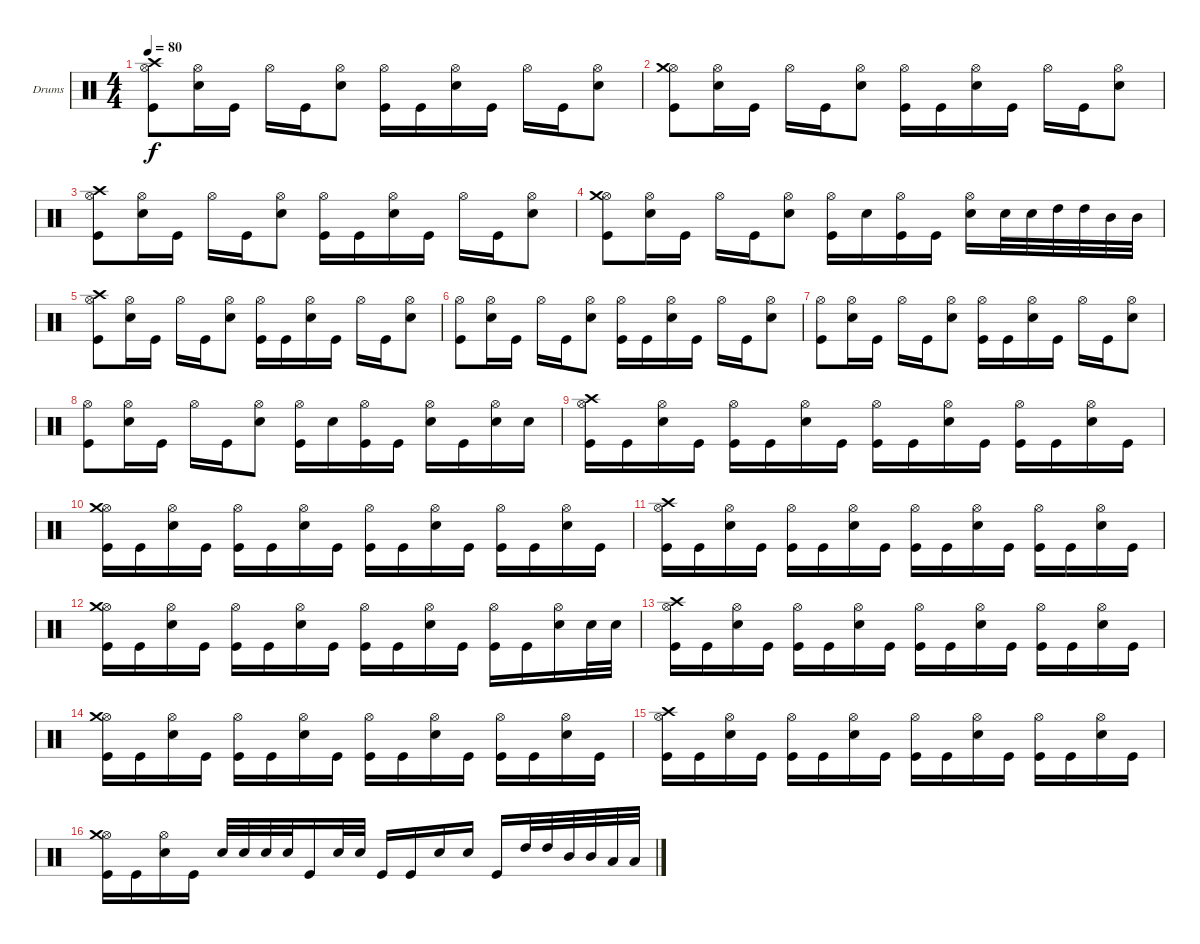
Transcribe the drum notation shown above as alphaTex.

\defaultSystemsLayout 4
\bracketExtendMode groupsimilarinstruments
\firstSystemTrackNameOrientation horizontal
\otherSystemsTrackNameOrientation horizontal
\track ("Drumkit" "Drums") {instrument percussion}
\staff {score}
\articulation defaults
\ts (4 4)
\tempo 80
\clef neutral
\scale
0.333333
\ks c
("Hi-Hat (open)" "Kick (hit)" "Crash high (hit)").8{dy f} ("Hi-Hat (open)" "Snare (hit) 2").16 "Kick (hit)".16 "Hi-Hat (open)".16 "Kick (hit)".16 ("Snare (hit) 2" "Hi-Hat (open)").8 ("Hi-Hat (open)" "Kick (hit)").16 "Kick (hit)".16 ("Hi-Hat (open)" "Snare (hit) 2").16 "Kick (hit)".16 "Hi-Hat (open)".16 "Kick (hit)".16 ("Snare (hit) 2" "Hi-Hat (open)").8 |
\scale
0.333333 ("Hi-Hat (open)" "Kick (hit)" "Crash medium (hit)").8 ("Hi-Hat (open)" "Snare (hit) 2").16 "Kick (hit)".16 "Hi-Hat (open)".16 "Kick (hit)".16 ("Snare (hit) 2" "Hi-Hat (open)").8 ("Hi-Hat (open)" "Kick (hit)").16 "Kick (hit)".16 ("Hi-Hat (open)" "Snare (hit) 2").16 "Kick (hit)".16 "Hi-Hat (open)".16 "Kick (hit)".16 ("Snare (hit) 2" "Hi-Hat (open)").8 |
\scale
0.333333 ("Hi-Hat (open)" "Kick (hit)" "Crash high (hit)").8 ("Hi-Hat (open)" "Snare (hit) 2").16 "Kick (hit)".16 "Hi-Hat (open)".16 "Kick (hit)".16 ("Snare (hit) 2" "Hi-Hat (open)").8 ("Hi-Hat (open)" "Kick (hit)").16 "Kick (hit)".16 ("Hi-Hat (open)" "Snare (hit) 2").16 "Kick (hit)".16 "Hi-Hat (open)".16 "Kick (hit)".16 ("Snare (hit) 2" "Hi-Hat (open)").8 |
\scale
0.333333 ("Hi-Hat (open)" "Kick (hit)" "Crash medium (hit)").8 ("Hi-Hat (open)" "Snare (hit) 2").16 "Kick (hit)".16 "Hi-Hat (open)".16 "Kick (hit)".16 ("Snare (hit) 2" "Hi-Hat (open)").8 ("Hi-Hat (open)" "Kick (hit)").16 "Snare (hit) 2".16 ("Hi-Hat (open)" "Kick (hit)").16 "Kick (hit)".16 ("Hi-Hat (open)" "Snare (hit) 2").16 "Snare (hit) 2".32 "Snare (hit) 2".32 "High Tom (hit)".32 "High Tom (hit)".32 "Mid Tom (hit)".32 "Mid Tom (hit)".32 |
\scale
0.333333 ("Hi-Hat (open)" "Kick (hit)" "Crash high (hit)").8 ("Hi-Hat (open)" "Snare (hit) 2").16 "Kick (hit)".16 "Hi-Hat (open)".16 "Kick (hit)".16 ("Snare (hit) 2" "Hi-Hat (open)").8 ("Hi-Hat (open)" "Kick (hit)").16 "Kick (hit)".16 ("Hi-Hat (open)" "Snare (hit) 2").16 "Kick (hit)".16 "Hi-Hat (open)".16 "Kick (hit)".16 ("Snare (hit) 2" "Hi-Hat (open)").8 |
\scale
0.333333 ("Hi-Hat (open)" "Kick (hit)").8 ("Hi-Hat (open)" "Snare (hit) 2").16 "Kick (hit)".16 "Hi-Hat (open)".16 "Kick (hit)".16 ("Snare (hit) 2" "Hi-Hat (open)").8 ("Hi-Hat (open)" "Kick (hit)").16 "Kick (hit)".16 ("Hi-Hat (open)" "Snare (hit) 2").16 "Kick (hit)".16 "Hi-Hat (open)".16 "Kick (hit)".16 ("Snare (hit) 2" "Hi-Hat (open)").8 |
\scale
0.333333 ("Hi-Hat (open)" "Kick (hit)").8 ("Hi-Hat (open)" "Snare (hit) 2").16 "Kick (hit)".16 "Hi-Hat (open)".16 "Kick (hit)".16 ("Snare (hit) 2" "Hi-Hat (open)").8 ("Hi-Hat (open)" "Kick (hit)").16 "Kick (hit)".16 ("Hi-Hat (open)" "Snare (hit) 2").16 "Kick (hit)".16 "Hi-Hat (open)".16 "Kick (hit)".16 ("Snare (hit) 2" "Hi-Hat (open)").8 |
\scale
0.333333 ("Hi-Hat (open)" "Kick (hit)").8 ("Hi-Hat (open)" "Snare (hit) 2").16 "Kick (hit)".16 "Hi-Hat (open)".16 "Kick (hit)".16 ("Snare (hit) 2" "Hi-Hat (open)").8 ("Hi-Hat (open)" "Kick (hit)").16 "Snare (hit) 2".16 ("Hi-Hat (open)" "Kick (hit)").16 "Kick (hit)".16 ("Hi-Hat (open)" "Snare (hit) 2").16 "Kick (hit)".16 ("Snare (hit) 2" "Hi-Hat (open)").16 "Snare (hit) 2".16 |
\scale
0.333333 ("Hi-Hat (open)" "Kick (hit)" "Crash high (hit)").16 "Kick (hit)".16 ("Hi-Hat (open)" "Snare (hit) 2").16 "Kick (hit)".16 ("Hi-Hat (open)" "Kick (hit)").16 "Kick (hit)".16 ("Snare (hit) 2" "Hi-Hat (open)").16 "Kick (hit)".16 ("Hi-Hat (open)" "Kick (hit)").16 "Kick (hit)".16 ("Hi-Hat (open)" "Snare (hit) 2").16 "Kick (hit)".16 ("Hi-Hat (open)" "Kick (hit)").16 "Kick (hit)".16 ("Snare (hit) 2" "Hi-Hat (open)").16 "Kick (hit)".16 |
\scale
0.333333 ("Hi-Hat (open)" "Kick (hit)" "Crash medium (hit)").16 "Kick (hit)".16 ("Hi-Hat (open)" "Snare (hit) 2").16 "Kick (hit)".16 ("Hi-Hat (open)" "Kick (hit)").16 "Kick (hit)".16 ("Snare (hit) 2" "Hi-Hat (open)").16 "Kick (hit)".16 ("Hi-Hat (open)" "Kick (hit)").16 "Kick (hit)".16 ("Hi-Hat (open)" "Snare (hit) 2").16 "Kick (hit)".16 ("Hi-Hat (open)" "Kick (hit)").16 "Kick (hit)".16 ("Snare (hit) 2" "Hi-Hat (open)").16 "Kick (hit)".16 |
\scale
0.333333 ("Hi-Hat (open)" "Kick (hit)" "Crash high (hit)").16 "Kick (hit)".16 ("Hi-Hat (open)" "Snare (hit) 2").16 "Kick (hit)".16 ("Hi-Hat (open)" "Kick (hit)").16 "Kick (hit)".16 ("Snare (hit) 2" "Hi-Hat (open)").16 "Kick (hit)".16 ("Hi-Hat (open)" "Kick (hit)").16 "Kick (hit)".16 ("Hi-Hat (open)" "Snare (hit) 2").16 "Kick (hit)".16 ("Hi-Hat (open)" "Kick (hit)").16 "Kick (hit)".16 ("Snare (hit) 2" "Hi-Hat (open)").16 "Kick (hit)".16 |
\scale
0.333333 ("Hi-Hat (open)" "Kick (hit)" "Crash medium (hit)").16 "Kick (hit)".16 ("Hi-Hat (open)" "Snare (hit) 2").16 "Kick (hit)".16 ("Hi-Hat (open)" "Kick (hit)").16 "Kick (hit)".16 ("Snare (hit) 2" "Hi-Hat (open)").16 "Kick (hit)".16 ("Hi-Hat (open)" "Kick (hit)").16 "Kick (hit)".16 ("Hi-Hat (open)" "Snare (hit) 2").16 "Kick (hit)".16 ("Hi-Hat (open)" "Kick (hit)").16 "Kick (hit)".16 ("Snare (hit) 2" "Hi-Hat (open)").16 "Snare (hit) 2".32 "Snare (hit) 2".32 |
\scale
0.333333 ("Hi-Hat (open)" "Kick (hit)" "Crash high (hit)").16 "Kick (hit)".16 ("Hi-Hat (open)" "Snare (hit) 2").16 "Kick (hit)".16 ("Hi-Hat (open)" "Kick (hit)").16 "Kick (hit)".16 ("Snare (hit) 2" "Hi-Hat (open)").16 "Kick (hit)".16 ("Hi-Hat (open)" "Kick (hit)").16 "Kick (hit)".16 ("Hi-Hat (open)" "Snare (hit) 2").16 "Kick (hit)".16 ("Hi-Hat (open)" "Kick (hit)").16 "Kick (hit)".16 ("Snare (hit) 2" "Hi-Hat (open)").16 "Kick (hit)".16 |
\scale
0.333333 ("Hi-Hat (open)" "Kick (hit)" "Crash medium (hit)").16 "Kick (hit)".16 ("Hi-Hat (open)" "Snare (hit) 2").16 "Kick (hit)".16 ("Hi-Hat (open)" "Kick (hit)").16 "Kick (hit)".16 ("Snare (hit) 2" "Hi-Hat (open)").16 "Kick (hit)".16 ("Hi-Hat (open)" "Kick (hit)").16 "Kick (hit)".16 ("Hi-Hat (open)" "Snare (hit) 2").16 "Kick (hit)".16 ("Hi-Hat (open)" "Kick (hit)").16 "Kick (hit)".16 ("Snare (hit) 2" "Hi-Hat (open)").16 "Kick (hit)".16 |
\scale
0.333333 ("Hi-Hat (open)" "Kick (hit)" "Crash high (hit)").16 "Kick (hit)".16 ("Hi-Hat (open)" "Snare (hit) 2").16 "Kick (hit)".16 ("Hi-Hat (open)" "Kick (hit)").16 "Kick (hit)".16 ("Snare (hit) 2" "Hi-Hat (open)").16 "Kick (hit)".16 ("Hi-Hat (open)" "Kick (hit)").16 "Kick (hit)".16 ("Hi-Hat (open)" "Snare (hit) 2").16 "Kick (hit)".16 ("Hi-Hat (open)" "Kick (hit)").16 "Kick (hit)".16 ("Snare (hit) 2" "Hi-Hat (open)").16 "Kick (hit)".16 |
\scale
0.333333 ("Hi-Hat (open)" "Kick (hit)" "Crash medium (hit)").16 "Kick (hit)".16 ("Hi-Hat (open)" "Snare (hit) 2").16 "Kick (hit)".16 "Snare (hit) 2".32 "Snare (hit) 2".32 "Snare (hit) 2".32 "Snare (hit) 2".32 "Kick (hit)".16 "Snare (hit) 2".32 "Snare (hit) 2".32 "Kick (hit)".16 "Kick (hit)".16 "Snare (hit) 2".16 "Snare (hit) 2".16 "Kick (hit)".16 "High Tom (hit)".32 "High Tom (hit)".32 "Mid Tom (hit)".32 "Mid Tom (hit)".32 "Low Tom (hit)".32 "Low Tom (hit)".32
